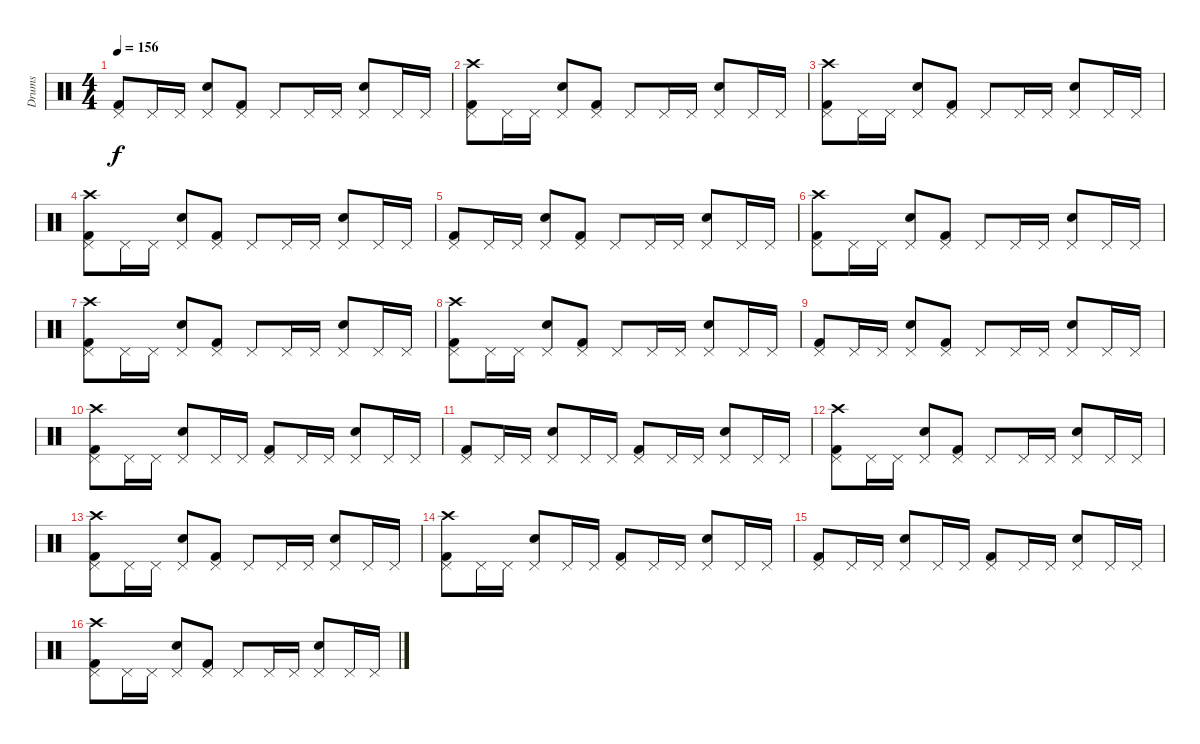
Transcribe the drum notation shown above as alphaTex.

\track ("Drums" "Drums") {instrument percussion}
\staff {score}
\articulation defaults
\ts (4 4)
\tempo 156
\clef neutral
\ks c
("Kick (hit) 2" "Pedal Hi-Hat (hit)").8{dy f} "Pedal Hi-Hat (hit)".16 "Pedal Hi-Hat (hit)".16 ("Snare (hit) 2" "Pedal Hi-Hat (hit)").8 ("Kick (hit) 2" "Pedal Hi-Hat (hit)").8 "Pedal Hi-Hat (hit)".8 "Pedal Hi-Hat (hit)".16 "Pedal Hi-Hat (hit)".16 ("Snare (hit) 2" "Pedal Hi-Hat (hit)").8 "Pedal Hi-Hat (hit)".16 "Pedal Hi-Hat (hit)".16 |
("Kick (hit) 2" "Pedal Hi-Hat (hit)" "Crash high (hit)").8 "Pedal Hi-Hat (hit)".16 "Pedal Hi-Hat (hit)".16 ("Snare (hit) 2" "Pedal Hi-Hat (hit)").8 ("Kick (hit) 2" "Pedal Hi-Hat (hit)").8 "Pedal Hi-Hat (hit)".8 "Pedal Hi-Hat (hit)".16 "Pedal Hi-Hat (hit)".16 ("Snare (hit) 2" "Pedal Hi-Hat (hit)").8 "Pedal Hi-Hat (hit)".16 "Pedal Hi-Hat (hit)".16 |
("Kick (hit) 2" "Pedal Hi-Hat (hit)" "Crash high (hit)").8 "Pedal Hi-Hat (hit)".16 "Pedal Hi-Hat (hit)".16 ("Snare (hit) 2" "Pedal Hi-Hat (hit)").8 ("Kick (hit) 2" "Pedal Hi-Hat (hit)").8 "Pedal Hi-Hat (hit)".8 "Pedal Hi-Hat (hit)".16 "Pedal Hi-Hat (hit)".16 ("Snare (hit) 2" "Pedal Hi-Hat (hit)").8 "Pedal Hi-Hat (hit)".16 "Pedal Hi-Hat (hit)".16 |
("Kick (hit) 2" "Pedal Hi-Hat (hit)" "Crash high (hit)").8 "Pedal Hi-Hat (hit)".16 "Pedal Hi-Hat (hit)".16 ("Snare (hit) 2" "Pedal Hi-Hat (hit)").8 ("Kick (hit) 2" "Pedal Hi-Hat (hit)").8 "Pedal Hi-Hat (hit)".8 "Pedal Hi-Hat (hit)".16 "Pedal Hi-Hat (hit)".16 ("Snare (hit) 2" "Pedal Hi-Hat (hit)").8 "Pedal Hi-Hat (hit)".16 "Pedal Hi-Hat (hit)".16 |
("Kick (hit) 2" "Pedal Hi-Hat (hit)").8 "Pedal Hi-Hat (hit)".16 "Pedal Hi-Hat (hit)".16 ("Snare (hit) 2" "Pedal Hi-Hat (hit)").8 ("Kick (hit) 2" "Pedal Hi-Hat (hit)").8 "Pedal Hi-Hat (hit)".8 "Pedal Hi-Hat (hit)".16 "Pedal Hi-Hat (hit)".16 ("Snare (hit) 2" "Pedal Hi-Hat (hit)").8 "Pedal Hi-Hat (hit)".16 "Pedal Hi-Hat (hit)".16 |
("Kick (hit) 2" "Pedal Hi-Hat (hit)" "Crash high (hit)").8 "Pedal Hi-Hat (hit)".16 "Pedal Hi-Hat (hit)".16 ("Snare (hit) 2" "Pedal Hi-Hat (hit)").8 ("Kick (hit) 2" "Pedal Hi-Hat (hit)").8 "Pedal Hi-Hat (hit)".8 "Pedal Hi-Hat (hit)".16 "Pedal Hi-Hat (hit)".16 ("Snare (hit) 2" "Pedal Hi-Hat (hit)").8 "Pedal Hi-Hat (hit)".16 "Pedal Hi-Hat (hit)".16 |
("Kick (hit) 2" "Pedal Hi-Hat (hit)" "Crash high (hit)").8 "Pedal Hi-Hat (hit)".16 "Pedal Hi-Hat (hit)".16 ("Snare (hit) 2" "Pedal Hi-Hat (hit)").8 ("Kick (hit) 2" "Pedal Hi-Hat (hit)").8 "Pedal Hi-Hat (hit)".8 "Pedal Hi-Hat (hit)".16 "Pedal Hi-Hat (hit)".16 ("Snare (hit) 2" "Pedal Hi-Hat (hit)").8 "Pedal Hi-Hat (hit)".16 "Pedal Hi-Hat (hit)".16 |
("Kick (hit) 2" "Pedal Hi-Hat (hit)" "Crash high (hit)").8 "Pedal Hi-Hat (hit)".16 "Pedal Hi-Hat (hit)".16 ("Snare (hit) 2" "Pedal Hi-Hat (hit)").8 ("Kick (hit) 2" "Pedal Hi-Hat (hit)").8 "Pedal Hi-Hat (hit)".8 "Pedal Hi-Hat (hit)".16 "Pedal Hi-Hat (hit)".16 ("Snare (hit) 2" "Pedal Hi-Hat (hit)").8 "Pedal Hi-Hat (hit)".16 "Pedal Hi-Hat (hit)".16 |
("Kick (hit) 2" "Pedal Hi-Hat (hit)").8 "Pedal Hi-Hat (hit)".16 "Pedal Hi-Hat (hit)".16 ("Snare (hit) 2" "Pedal Hi-Hat (hit)").8 ("Kick (hit) 2" "Pedal Hi-Hat (hit)").8 "Pedal Hi-Hat (hit)".8 "Pedal Hi-Hat (hit)".16 "Pedal Hi-Hat (hit)".16 ("Snare (hit) 2" "Pedal Hi-Hat (hit)").8 "Pedal Hi-Hat (hit)".16 "Pedal Hi-Hat (hit)".16 |
("Kick (hit) 2" "Pedal Hi-Hat (hit)" "Crash high (hit)").8 "Pedal Hi-Hat (hit)".16 "Pedal Hi-Hat (hit)".16 ("Snare (hit) 2" "Pedal Hi-Hat (hit)").8 "Pedal Hi-Hat (hit)".16 "Pedal Hi-Hat (hit)".16 ("Kick (hit) 2" "Pedal Hi-Hat (hit)").8 "Pedal Hi-Hat (hit)".16 "Pedal Hi-Hat (hit)".16 ("Snare (hit) 2" "Pedal Hi-Hat (hit)").8 "Pedal Hi-Hat (hit)".16 "Pedal Hi-Hat (hit)".16 |
("Kick (hit) 2" "Pedal Hi-Hat (hit)").8 "Pedal Hi-Hat (hit)".16 "Pedal Hi-Hat (hit)".16 ("Snare (hit) 2" "Pedal Hi-Hat (hit)").8 "Pedal Hi-Hat (hit)".16 "Pedal Hi-Hat (hit)".16 ("Kick (hit) 2" "Pedal Hi-Hat (hit)").8 "Pedal Hi-Hat (hit)".16 "Pedal Hi-Hat (hit)".16 ("Snare (hit) 2" "Pedal Hi-Hat (hit)").8 "Pedal Hi-Hat (hit)".16 "Pedal Hi-Hat (hit)".16 |
("Kick (hit) 2" "Pedal Hi-Hat (hit)" "Crash high (hit)").8 "Pedal Hi-Hat (hit)".16 "Pedal Hi-Hat (hit)".16 ("Snare (hit) 2" "Pedal Hi-Hat (hit)").8 ("Kick (hit) 2" "Pedal Hi-Hat (hit)").8 "Pedal Hi-Hat (hit)".8 "Pedal Hi-Hat (hit)".16 "Pedal Hi-Hat (hit)".16 ("Snare (hit) 2" "Pedal Hi-Hat (hit)").8 "Pedal Hi-Hat (hit)".16 "Pedal Hi-Hat (hit)".16 |
("Kick (hit) 2" "Pedal Hi-Hat (hit)" "Crash high (hit)").8 "Pedal Hi-Hat (hit)".16 "Pedal Hi-Hat (hit)".16 ("Snare (hit) 2" "Pedal Hi-Hat (hit)").8 ("Kick (hit) 2" "Pedal Hi-Hat (hit)").8 "Pedal Hi-Hat (hit)".8 "Pedal Hi-Hat (hit)".16 "Pedal Hi-Hat (hit)".16 ("Snare (hit) 2" "Pedal Hi-Hat (hit)").8 "Pedal Hi-Hat (hit)".16 "Pedal Hi-Hat (hit)".16 |
("Kick (hit) 2" "Pedal Hi-Hat (hit)" "Crash high (hit)").8 "Pedal Hi-Hat (hit)".16 "Pedal Hi-Hat (hit)".16 ("Snare (hit) 2" "Pedal Hi-Hat (hit)").8 "Pedal Hi-Hat (hit)".16 "Pedal Hi-Hat (hit)".16 ("Kick (hit) 2" "Pedal Hi-Hat (hit)").8 "Pedal Hi-Hat (hit)".16 "Pedal Hi-Hat (hit)".16 ("Snare (hit) 2" "Pedal Hi-Hat (hit)").8 "Pedal Hi-Hat (hit)".16 "Pedal Hi-Hat (hit)".16 |
("Kick (hit) 2" "Pedal Hi-Hat (hit)").8 "Pedal Hi-Hat (hit)".16 "Pedal Hi-Hat (hit)".16 ("Snare (hit) 2" "Pedal Hi-Hat (hit)").8 "Pedal Hi-Hat (hit)".16 "Pedal Hi-Hat (hit)".16 ("Kick (hit) 2" "Pedal Hi-Hat (hit)").8 "Pedal Hi-Hat (hit)".16 "Pedal Hi-Hat (hit)".16 ("Snare (hit) 2" "Pedal Hi-Hat (hit)").8 "Pedal Hi-Hat (hit)".16 "Pedal Hi-Hat (hit)".16 |
("Kick (hit) 2" "Pedal Hi-Hat (hit)" "Crash high (hit)").8 "Pedal Hi-Hat (hit)".16 "Pedal Hi-Hat (hit)".16 ("Snare (hit) 2" "Pedal Hi-Hat (hit)").8 ("Kick (hit) 2" "Pedal Hi-Hat (hit)").8 "Pedal Hi-Hat (hit)".8 "Pedal Hi-Hat (hit)".16 "Pedal Hi-Hat (hit)".16 ("Snare (hit) 2" "Pedal Hi-Hat (hit)").8 "Pedal Hi-Hat (hit)".16 "Pedal Hi-Hat (hit)".16
